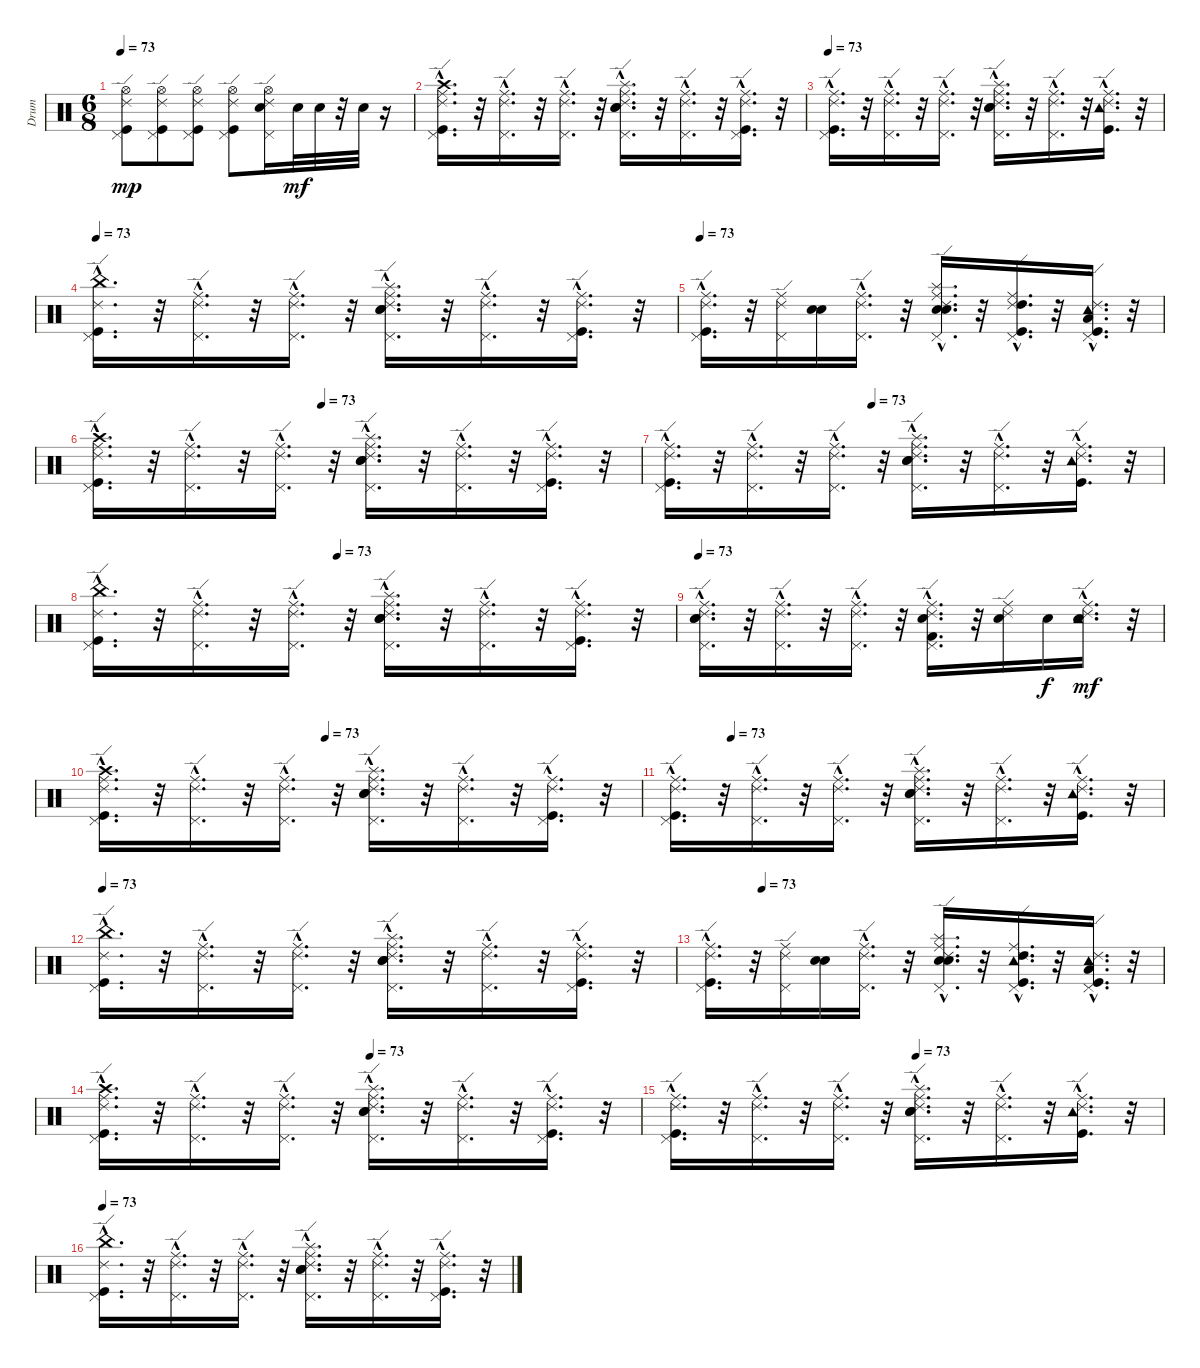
\track ("Drum" "Drum") {instrument percussion}
\staff {score}
\articulation defaults
\ts (6 8)
\tempo 73
\clef neutral
\ks c
("Kick (hit)" "Ride (edge) 2" "Pedal Hi-Hat (hit)" "Hi-Hat (open)").8{dy mp} ("Kick (hit)" "Ride (edge) 2" "Pedal Hi-Hat (hit)" "Hi-Hat (open)").8 ("Kick (hit)" "Ride (edge) 2" "Pedal Hi-Hat (hit)" "Hi-Hat (open)").8 ("Kick (hit)" "Ride (edge) 2" "Pedal Hi-Hat (hit)" "Hi-Hat (open)").8 ("Pedal Hi-Hat (hit)" "Ride (edge) 2" "Snare (hit) 2" "Hi-Hat (open)").16 "Snare (hit) 2".32{dy mf} "Snare (hit) 2".32 r.32 "Snare (hit) 2".32 r.16 |
("Ride (edge) 2"{hac} "Crash high (hit)"{hac} "Kick (hit)"{hac} "Ride (middle)"{hac} "Pedal Hi-Hat (hit)"{hac}).16{d} r.32 ("Ride (middle)"{hac} "Pedal Hi-Hat (hit)"{hac} "Ride (edge) 2"{hac}).16{d} r.32 ("Ride (edge) 2"{hac} "Ride (middle)"{hac} "Pedal Hi-Hat (hit)"{hac}).16{d} r.32 ("Ride (edge) 2"{hac} "Ride (middle)"{hac} "Splash (hit)"{hac} "Snare (hit) 2"{hac} "Pedal Hi-Hat (hit)"{hac} "Electric Snare (hit)"{hac}).16{d} r.32 ("Ride (edge) 2"{hac} "Ride (middle)"{hac} "Pedal Hi-Hat (hit)"{hac}).16{d} r.32 ("Pedal Hi-Hat (hit)"{hac} "Kick (hit)"{hac} "Ride (edge) 2"{hac} "Ride (middle)"{hac}).16{d} r.32 |
\tempo 73
("Ride (middle)"{hac} "Kick (hit)"{hac} "Ride (edge) 2"{hac} "Pedal Hi-Hat (hit)"{hac}).16{d} r.32 ("Ride (edge) 2"{hac} "Ride (middle)"{hac} "Pedal Hi-Hat (hit)"{hac}).16{d} r.32 ("Ride (edge) 2"{hac} "Ride (middle)"{hac} "Pedal Hi-Hat (hit)"{hac}).16{d} r.32 ("Splash (hit)"{hac} "Pedal Hi-Hat (hit)"{hac} "Snare (hit) 2"{hac} "Ride (middle)"{hac} "Ride (edge) 2"{hac} "Electric Snare (hit)"{hac}).16{d} r.32 ("Ride (edge) 2"{hac} "Ride (middle)"{hac} "Pedal Hi-Hat (hit)"{hac}).16{d} r.32 ("Kick (hit)"{hac} "Ride (middle)"{hac} "Tambourine (hit)"{hac} "Ride (edge) 2"{hac}).16{d} r.32 |
\tempo 73
("Ride (edge) 2"{hac} "China (hit)"{hac} "Pedal Hi-Hat (hit)"{hac} "Kick (hit)"{hac}).16{d} r.32 ("Ride (edge) 2"{hac} "Ride (middle)"{hac} "Pedal Hi-Hat (hit)"{hac}).16{d} r.32 ("Ride (edge) 2"{hac} "Ride (middle)"{hac} "Pedal Hi-Hat (hit)"{hac}).16{d} r.32 ("Electric Snare (hit)"{hac} "Ride (edge) 2"{hac} "Snare (hit) 2"{hac} "Splash (hit)"{hac} "Ride (middle)"{hac} "Pedal Hi-Hat (hit)"{hac}).16{d} r.32 ("Ride (middle)"{hac} "Ride (edge) 2"{hac} "Pedal Hi-Hat (hit)"{hac}).16{d} r.32 ("Pedal Hi-Hat (hit)"{hac} "Ride (middle)"{hac} "Ride (edge) 2"{hac} "Kick (hit)"{hac}).16{d} r.32 |
\tempo 73
("Ride (edge) 2"{hac} "Pedal Hi-Hat (hit)"{hac} "Kick (hit)"{hac} "Ride (middle)"{hac}).16{d} r.32 ("Pedal Hi-Hat (hit)" "Ride (edge) 2" "Ride (middle)").16 ("Snare (hit) 2" "Electric Snare (hit)").16 ("Ride (edge) 2"{hac} "Pedal Hi-Hat (hit)"{hac} "Ride (middle)"{hac}).16{d} r.32 ("Ride (edge) 2"{hac} "Snare (hit) 2"{hac} "Splash (hit)"{hac} "Pedal Hi-Hat (hit)"{hac} "Electric Snare (hit)"{hac} "Ride (middle)"{hac}).16{d} r.32 ("Ride (edge) 2"{hac} "Pedal Hi-Hat (hit)"{hac} "Kick (hit)"{hac} "High Tom (hit)"{hac} "Ride (middle)"{hac}).16{d} r.32 ("Ride (edge) 2"{hac} "Pedal Hi-Hat (hit)"{hac} "Kick (hit)"{hac} "Low Tom (hit)"{hac} "Tambourine (hit)"{hac}).16{d} r.32 |
\tempo (73 0.4166666666666667)
("Crash high (hit)"{hac} "Pedal Hi-Hat (hit)"{hac} "Kick (hit)"{hac} "Ride (edge) 2"{hac} "Ride (middle)"{hac}).16{d} r.32 ("Ride (edge) 2"{hac} "Pedal Hi-Hat (hit)"{hac} "Ride (middle)"{hac}).16{d} r.32 ("Pedal Hi-Hat (hit)"{hac} "Ride (edge) 2"{hac} "Ride (middle)"{hac}).16{d} r.32 ("Splash (hit)"{hac} "Pedal Hi-Hat (hit)"{hac} "Snare (hit) 2"{hac} "Ride (edge) 2"{hac} "Electric Snare (hit)"{hac} "Ride (middle)"{hac}).16{d} r.32 ("Pedal Hi-Hat (hit)"{hac} "Ride (edge) 2"{hac} "Ride (middle)"{hac}).16{d} r.32 ("Pedal Hi-Hat (hit)"{hac} "Kick (hit)"{hac} "Ride (edge) 2"{hac} "Ride (middle)"{hac}).16{d} r.32 |
\tempo (73 0.4166666666666667)
("Pedal Hi-Hat (hit)"{hac} "Ride (edge) 2"{hac} "Kick (hit)"{hac} "Ride (middle)"{hac}).16{d} r.32 ("Ride (edge) 2"{hac} "Pedal Hi-Hat (hit)"{hac} "Ride (middle)"{hac}).16{d} r.32 ("Pedal Hi-Hat (hit)"{hac} "Ride (edge) 2"{hac} "Ride (middle)"{hac}).16{d} r.32 ("Splash (hit)"{hac} "Pedal Hi-Hat (hit)"{hac} "Snare (hit) 2"{hac} "Ride (edge) 2"{hac} "Electric Snare (hit)"{hac} "Ride (middle)"{hac}).16{d} r.32 ("Pedal Hi-Hat (hit)"{hac} "Ride (edge) 2"{hac} "Ride (middle)"{hac}).16{d} r.32 ("Tambourine (hit)"{hac} "Ride (edge) 2"{hac} "Kick (hit)"{hac} "Ride (middle)"{hac}).16{d} r.32 |
\tempo (73 0.4166666666666667)
("Kick (hit)"{hac} "Pedal Hi-Hat (hit)"{hac} "Ride (edge) 2"{hac} "China (hit)"{hac}).16{d} r.32 ("Pedal Hi-Hat (hit)"{hac} "Ride (edge) 2"{hac} "Ride (middle)"{hac}).16{d} r.32 ("Pedal Hi-Hat (hit)"{hac} "Ride (edge) 2"{hac} "Ride (middle)"{hac}).16{d} r.32 ("Snare (hit) 2"{hac} "Pedal Hi-Hat (hit)"{hac} "Splash (hit)"{hac} "Ride (edge) 2"{hac} "Electric Snare (hit)"{hac} "Ride (middle)"{hac}).16{d} r.32 ("Ride (edge) 2"{hac} "Pedal Hi-Hat (hit)"{hac} "Ride (middle)"{hac}).16{d} r.32 ("Ride (edge) 2"{hac} "Kick (hit)"{hac} "Pedal Hi-Hat (hit)"{hac} "Ride (middle)"{hac}).16{d} r.32 |
\tempo 73
("Ride (edge) 2"{hac} "Snare (hit) 2"{hac} "Pedal Hi-Hat (hit)"{hac} "Electric Snare (hit)"{hac} "Ride (middle)"{hac}).16{d} r.32 ("Ride (edge) 2"{hac} "Pedal Hi-Hat (hit)"{hac} "Ride (middle)"{hac}).16{d} r.32 ("Ride (edge) 2"{hac} "Pedal Hi-Hat (hit)"{hac} "Ride (middle)"{hac}).16{d} r.32 ("Kick (hit) 2"{hac} "Ride (edge) 2"{hac} "Electric Snare (hit)"{hac} "Pedal Hi-Hat (hit)"{hac} "Ride (middle)"{hac}).16{d} r.32 ("Ride (middle)" "Snare (hit) 2" "Ride (edge) 2").16 "Snare (hit) 2".16{dy f} ("Tambourine (hit)"{hac} "Ride (middle)"{hac} "Snare (hit) 2"{hac} "Ride (edge) 2"{hac}).16{d dy mf} r.32 |
\tempo (73 0.4166666666666667)
("Pedal Hi-Hat (hit)"{hac} "Ride (middle)"{hac} "Kick (hit)"{hac} "Crash high (hit)"{hac} "Ride (edge) 2"{hac}).16{d} r.32 ("Ride (edge) 2"{hac} "Pedal Hi-Hat (hit)"{hac} "Ride (middle)"{hac}).16{d} r.32 ("Pedal Hi-Hat (hit)"{hac} "Ride (middle)"{hac} "Ride (edge) 2"{hac}).16{d} r.32 ("Electric Snare (hit)"{hac} "Pedal Hi-Hat (hit)"{hac} "Snare (hit) 2"{hac} "Splash (hit)"{hac} "Ride (middle)"{hac} "Ride (edge) 2"{hac}).16{d} r.32 ("Pedal Hi-Hat (hit)"{hac} "Ride (middle)"{hac} "Ride (edge) 2"{hac}).16{d} r.32 ("Ride (middle)"{hac} "Ride (edge) 2"{hac} "Kick (hit)"{hac} "Pedal Hi-Hat (hit)"{hac}).16{d} r.32 |
\tempo (73 0.125)
("Pedal Hi-Hat (hit)"{hac} "Ride (edge) 2"{hac} "Kick (hit)"{hac} "Ride (middle)"{hac}).16{d} r.32 ("Pedal Hi-Hat (hit)"{hac} "Ride (middle)"{hac} "Ride (edge) 2"{hac}).16{d} r.32 ("Pedal Hi-Hat (hit)"{hac} "Ride (middle)"{hac} "Ride (edge) 2"{hac}).16{d} r.32 ("Electric Snare (hit)"{hac} "Ride (edge) 2"{hac} "Ride (middle)"{hac} "Snare (hit) 2"{hac} "Pedal Hi-Hat (hit)"{hac} "Splash (hit)"{hac}).16{d} r.32 ("Pedal Hi-Hat (hit)"{hac} "Ride (middle)"{hac} "Ride (edge) 2"{hac}).16{d} r.32 ("Ride (edge) 2"{hac} "Tambourine (hit)"{hac} "Ride (middle)"{hac} "Kick (hit)"{hac}).16{d} r.32 |
\tempo 73
("China (hit)"{hac} "Kick (hit)"{hac} "Pedal Hi-Hat (hit)"{hac} "Ride (edge) 2"{hac}).16{d} r.32 ("Ride (middle)"{hac} "Ride (edge) 2"{hac} "Pedal Hi-Hat (hit)"{hac}).16{d} r.32 ("Ride (middle)"{hac} "Pedal Hi-Hat (hit)"{hac} "Ride (edge) 2"{hac}).16{d} r.32 ("Ride (middle)"{hac} "Electric Snare (hit)"{hac} "Pedal Hi-Hat (hit)"{hac} "Splash (hit)"{hac} "Ride (edge) 2"{hac} "Snare (hit) 2"{hac}).16{d} r.32 ("Ride (middle)"{hac} "Pedal Hi-Hat (hit)"{hac} "Ride (edge) 2"{hac}).16{d} r.32 ("Ride (middle)"{hac} "Kick (hit)"{hac} "Ride (edge) 2"{hac} "Pedal Hi-Hat (hit)"{hac}).16{d} r.32 |
\tempo (73 0.125)
("Ride (middle)"{hac} "Kick (hit)"{hac} "Pedal Hi-Hat (hit)"{hac} "Ride (edge) 2"{hac}).16{d} r.32 ("Ride (middle)" "Ride (edge) 2" "Pedal Hi-Hat (hit)").16 ("Electric Snare (hit)" "Snare (hit) 2").16 ("Ride (middle)"{hac} "Pedal Hi-Hat (hit)"{hac} "Ride (edge) 2"{hac}).16{d} r.32 ("Ride (middle)"{hac} "Electric Snare (hit)"{hac} "Pedal Hi-Hat (hit)"{hac} "Splash (hit)"{hac} "Snare (hit) 2"{hac} "Ride (edge) 2"{hac}).16{d} r.32 ("Tambourine (hit)"{hac} "Ride (middle)"{hac} "High Tom (hit)"{hac} "Kick (hit)"{hac} "Pedal Hi-Hat (hit)"{hac} "Ride (edge) 2"{hac}).16{d} r.32 ("Tambourine (hit)"{hac} "Low Tom (hit)"{hac} "Kick (hit)"{hac} "Pedal Hi-Hat (hit)"{hac} "Ride (edge) 2"{hac}).16{d} r.32 |
\tempo (73 0.5)
("Ride (middle)"{hac} "Ride (edge) 2"{hac} "Kick (hit)"{hac} "Pedal Hi-Hat (hit)"{hac} "Crash high (hit)"{hac}).16{d} r.32 ("Ride (middle)"{hac} "Pedal Hi-Hat (hit)"{hac} "Ride (edge) 2"{hac}).16{d} r.32 ("Ride (middle)"{hac} "Ride (edge) 2"{hac} "Pedal Hi-Hat (hit)"{hac}).16{d} r.32 ("Ride (middle)"{hac} "Electric Snare (hit)"{hac} "Ride (edge) 2"{hac} "Snare (hit) 2"{hac} "Pedal Hi-Hat (hit)"{hac} "Splash (hit)"{hac}).16{d} r.32 ("Ride (middle)"{hac} "Ride (edge) 2"{hac} "Pedal Hi-Hat (hit)"{hac}).16{d} r.32 ("Ride (middle)"{hac} "Ride (edge) 2"{hac} "Kick (hit)"{hac} "Pedal Hi-Hat (hit)"{hac}).16{d} r.32 |
\tempo (73 0.5)
("Ride (middle)"{hac} "Kick (hit)"{hac} "Ride (edge) 2"{hac} "Pedal Hi-Hat (hit)"{hac}).16{d} r.32 ("Ride (middle)"{hac} "Pedal Hi-Hat (hit)"{hac} "Ride (edge) 2"{hac}).16{d} r.32 ("Ride (middle)"{hac} "Ride (edge) 2"{hac} "Pedal Hi-Hat (hit)"{hac}).16{d} r.32 ("Ride (middle)"{hac} "Electric Snare (hit)"{hac} "Ride (edge) 2"{hac} "Snare (hit) 2"{hac} "Pedal Hi-Hat (hit)"{hac} "Splash (hit)"{hac}).16{d} r.32 ("Ride (middle)"{hac} "Ride (edge) 2"{hac} "Pedal Hi-Hat (hit)"{hac}).16{d} r.32 ("Ride (middle)"{hac} "Kick (hit)"{hac} "Ride (edge) 2"{hac} "Tambourine (hit)"{hac}).16{d} r.32 |
\tempo 73
("Kick (hit)"{hac} "Pedal Hi-Hat (hit)"{hac} "China (hit)"{hac} "Ride (edge) 2"{hac}).16{d} r.32 ("Pedal Hi-Hat (hit)"{hac} "Ride (middle)"{hac} "Ride (edge) 2"{hac}).16{d} r.32 ("Pedal Hi-Hat (hit)"{hac} "Ride (middle)"{hac} "Ride (edge) 2"{hac}).16{d} r.32 ("Electric Snare (hit)"{hac} "Splash (hit)"{hac} "Snare (hit) 2"{hac} "Pedal Hi-Hat (hit)"{hac} "Ride (middle)"{hac} "Ride (edge) 2"{hac}).16{d} r.32 ("Pedal Hi-Hat (hit)"{hac} "Ride (middle)"{hac} "Ride (edge) 2"{hac}).16{d} r.32 ("Kick (hit)"{hac} "Pedal Hi-Hat (hit)"{hac} "Ride (middle)"{hac} "Ride (edge) 2"{hac}).16{d} r.32
